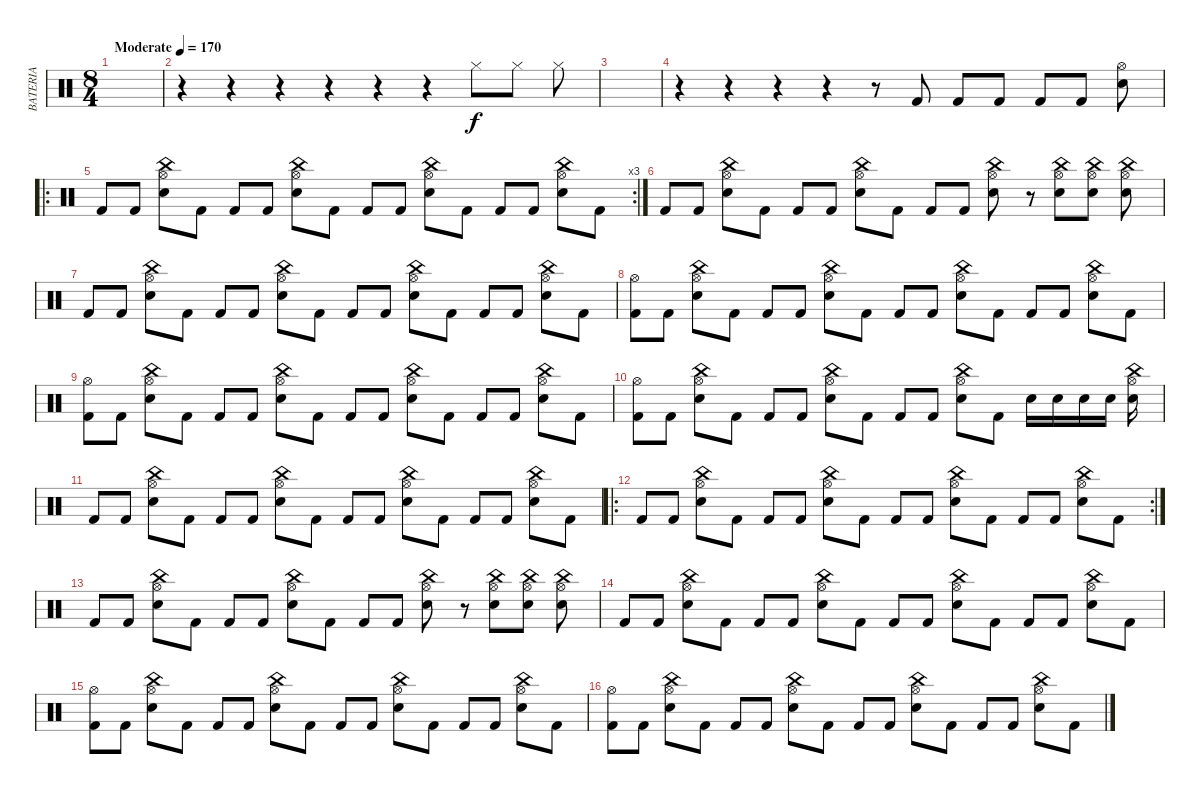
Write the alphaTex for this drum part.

\track ("BATERIA" "BATERIA") {instrument percussion}
\staff {score}
\articulation defaults
\ts (8 4)
\tempo (170 "Moderate")
\clef neutral
\ks c
|
r.4 r.4 r.4 r.4 r.4 r.4 "Hi-Hat (closed)".8 "Hi-Hat (closed)".8 "Hi-Hat (closed)".8 |
|
r.4 r.4 r.4 r.4 r.8 "Kick (hit) 2".8 "Kick (hit) 2".8 "Kick (hit) 2".8 "Kick (hit) 2".8 "Kick (hit) 2".8 ("Snare (hit) 2" "Hi-Hat (open)").8 |
\ro
\rc 3 "Kick (hit) 2".8 "Kick (hit) 2".8
("Snare (hit) 2" "Hi-Hat (open)" "China (hit)").8 "Kick (hit) 2".8 "Kick (hit) 2".8 "Kick (hit) 2".8 ("Snare (hit) 2" "Hi-Hat (open)" "China (hit)").8 "Kick (hit) 2".8 "Kick (hit) 2".8 "Kick (hit) 2".8 ("Snare (hit) 2" "Hi-Hat (open)" "China (hit)").8 "Kick (hit) 2".8 "Kick (hit) 2".8 "Kick (hit) 2".8 ("Snare (hit) 2" "Hi-Hat (open)" "China (hit)").8 "Kick (hit) 2".8 |
"Kick (hit) 2".8 "Kick (hit) 2".8 ("Snare (hit) 2" "Hi-Hat (open)" "China (hit)").8 "Kick (hit) 2".8 "Kick (hit) 2".8 "Kick (hit) 2".8 ("Snare (hit) 2" "Hi-Hat (open)" "China (hit)").8 "Kick (hit) 2".8 "Kick (hit) 2".8 "Kick (hit) 2".8 ("Snare (hit) 2" "Hi-Hat (open)" "China (hit)").8 r.8 ("Snare (hit) 2" "Hi-Hat (open)" "China (hit)").8 ("Snare (hit) 2" "Hi-Hat (open)" "China (hit)").8 ("Snare (hit) 2" "Hi-Hat (open)" "China (hit)").8 |
"Kick (hit) 2".8 "Kick (hit) 2".8 ("Snare (hit) 2" "Hi-Hat (open)" "China (hit)").8 "Kick (hit) 2".8 "Kick (hit) 2".8 "Kick (hit) 2".8 ("Snare (hit) 2" "Hi-Hat (open)" "China (hit)").8 "Kick (hit) 2".8 "Kick (hit) 2".8 "Kick (hit) 2".8 ("Snare (hit) 2" "Hi-Hat (open)" "China (hit)").8 "Kick (hit) 2".8 "Kick (hit) 2".8 "Kick (hit) 2".8 ("Snare (hit) 2" "Hi-Hat (open)" "China (hit)").8 "Kick (hit) 2".8 |
("Kick (hit) 2" "Hi-Hat (open)").8 "Kick (hit) 2".8 ("Snare (hit) 2" "Hi-Hat (open)" "China (hit)").8 "Kick (hit) 2".8 "Kick (hit) 2".8 "Kick (hit) 2".8 ("Snare (hit) 2" "Hi-Hat (open)" "China (hit)").8 "Kick (hit) 2".8 "Kick (hit) 2".8 "Kick (hit) 2".8 ("Snare (hit) 2" "Hi-Hat (open)" "China (hit)").8 "Kick (hit) 2".8 "Kick (hit) 2".8 "Kick (hit) 2".8 ("Snare (hit) 2" "Hi-Hat (open)" "China (hit)").8 "Kick (hit) 2".8 |
("Kick (hit) 2" "Hi-Hat (open)").8 "Kick (hit) 2".8 ("Snare (hit) 2" "Hi-Hat (open)" "China (hit)").8 "Kick (hit) 2".8 "Kick (hit) 2".8 "Kick (hit) 2".8 ("Snare (hit) 2" "Hi-Hat (open)" "China (hit)").8 "Kick (hit) 2".8 "Kick (hit) 2".8 "Kick (hit) 2".8 ("Snare (hit) 2" "Hi-Hat (open)" "China (hit)").8 "Kick (hit) 2".8 "Kick (hit) 2".8 "Kick (hit) 2".8 ("Snare (hit) 2" "Hi-Hat (open)" "China (hit)").8 "Kick (hit) 2".8 |
("Kick (hit) 2" "Hi-Hat (open)").8 "Kick (hit) 2".8 ("Snare (hit) 2" "Hi-Hat (open)" "China (hit)").8 "Kick (hit) 2".8 "Kick (hit) 2".8 "Kick (hit) 2".8 ("Snare (hit) 2" "Hi-Hat (open)" "China (hit)").8 "Kick (hit) 2".8 "Kick (hit) 2".8 "Kick (hit) 2".8 ("Snare (hit) 2" "Hi-Hat (open)" "China (hit)").8 "Kick (hit) 2".8 "Snare (hit) 2".16 "Snare (hit) 2".16 "Snare (hit) 2".16 "Snare (hit) 2".16 ("Snare (hit) 2" "Hi-Hat (open)" "China (hit)").16 |
"Kick (hit) 2".8 "Kick (hit) 2".8 ("Snare (hit) 2" "Hi-Hat (open)" "China (hit)").8 "Kick (hit) 2".8 "Kick (hit) 2".8 "Kick (hit) 2".8 ("Snare (hit) 2" "Hi-Hat (open)" "China (hit)").8 "Kick (hit) 2".8 "Kick (hit) 2".8 "Kick (hit) 2".8 ("Snare (hit) 2" "Hi-Hat (open)" "China (hit)").8 "Kick (hit) 2".8 "Kick (hit) 2".8 "Kick (hit) 2".8 ("Snare (hit) 2" "Hi-Hat (open)" "China (hit)").8 "Kick (hit) 2".8 |
\ro
\rc 2 "Kick (hit) 2".8 "Kick (hit) 2".8
("Snare (hit) 2" "Hi-Hat (open)" "China (hit)").8 "Kick (hit) 2".8 "Kick (hit) 2".8 "Kick (hit) 2".8 ("Snare (hit) 2" "Hi-Hat (open)" "China (hit)").8 "Kick (hit) 2".8 "Kick (hit) 2".8 "Kick (hit) 2".8 ("Snare (hit) 2" "Hi-Hat (open)" "China (hit)").8 "Kick (hit) 2".8 "Kick (hit) 2".8 "Kick (hit) 2".8 ("Snare (hit) 2" "Hi-Hat (open)" "China (hit)").8 "Kick (hit) 2".8 |
"Kick (hit) 2".8 "Kick (hit) 2".8 ("Snare (hit) 2" "Hi-Hat (open)" "China (hit)").8 "Kick (hit) 2".8 "Kick (hit) 2".8 "Kick (hit) 2".8 ("Snare (hit) 2" "Hi-Hat (open)" "China (hit)").8 "Kick (hit) 2".8 "Kick (hit) 2".8 "Kick (hit) 2".8 ("Snare (hit) 2" "Hi-Hat (open)" "China (hit)").8 r.8 ("Snare (hit) 2" "Hi-Hat (open)" "China (hit)").8 ("Snare (hit) 2" "Hi-Hat (open)" "China (hit)").8 ("Snare (hit) 2" "Hi-Hat (open)" "China (hit)").8 |
"Kick (hit) 2".8 "Kick (hit) 2".8 ("Snare (hit) 2" "Hi-Hat (open)" "China (hit)").8 "Kick (hit) 2".8 "Kick (hit) 2".8 "Kick (hit) 2".8 ("Snare (hit) 2" "Hi-Hat (open)" "China (hit)").8 "Kick (hit) 2".8 "Kick (hit) 2".8 "Kick (hit) 2".8 ("Snare (hit) 2" "Hi-Hat (open)" "China (hit)").8 "Kick (hit) 2".8 "Kick (hit) 2".8 "Kick (hit) 2".8 ("Snare (hit) 2" "Hi-Hat (open)" "China (hit)").8 "Kick (hit) 2".8 |
("Kick (hit) 2" "Hi-Hat (open)").8 "Kick (hit) 2".8 ("Snare (hit) 2" "Hi-Hat (open)" "China (hit)").8 "Kick (hit) 2".8 "Kick (hit) 2".8 "Kick (hit) 2".8 ("Snare (hit) 2" "Hi-Hat (open)" "China (hit)").8 "Kick (hit) 2".8 "Kick (hit) 2".8 "Kick (hit) 2".8 ("Snare (hit) 2" "Hi-Hat (open)" "China (hit)").8 "Kick (hit) 2".8 "Kick (hit) 2".8 "Kick (hit) 2".8 ("Snare (hit) 2" "Hi-Hat (open)" "China (hit)").8 "Kick (hit) 2".8 |
("Kick (hit) 2" "Hi-Hat (open)").8 "Kick (hit) 2".8 ("Snare (hit) 2" "Hi-Hat (open)" "China (hit)").8 "Kick (hit) 2".8 "Kick (hit) 2".8 "Kick (hit) 2".8 ("Snare (hit) 2" "Hi-Hat (open)" "China (hit)").8 "Kick (hit) 2".8 "Kick (hit) 2".8 "Kick (hit) 2".8 ("Snare (hit) 2" "Hi-Hat (open)" "China (hit)").8 "Kick (hit) 2".8 "Kick (hit) 2".8 "Kick (hit) 2".8 ("Snare (hit) 2" "Hi-Hat (open)" "China (hit)").8 "Kick (hit) 2".8
